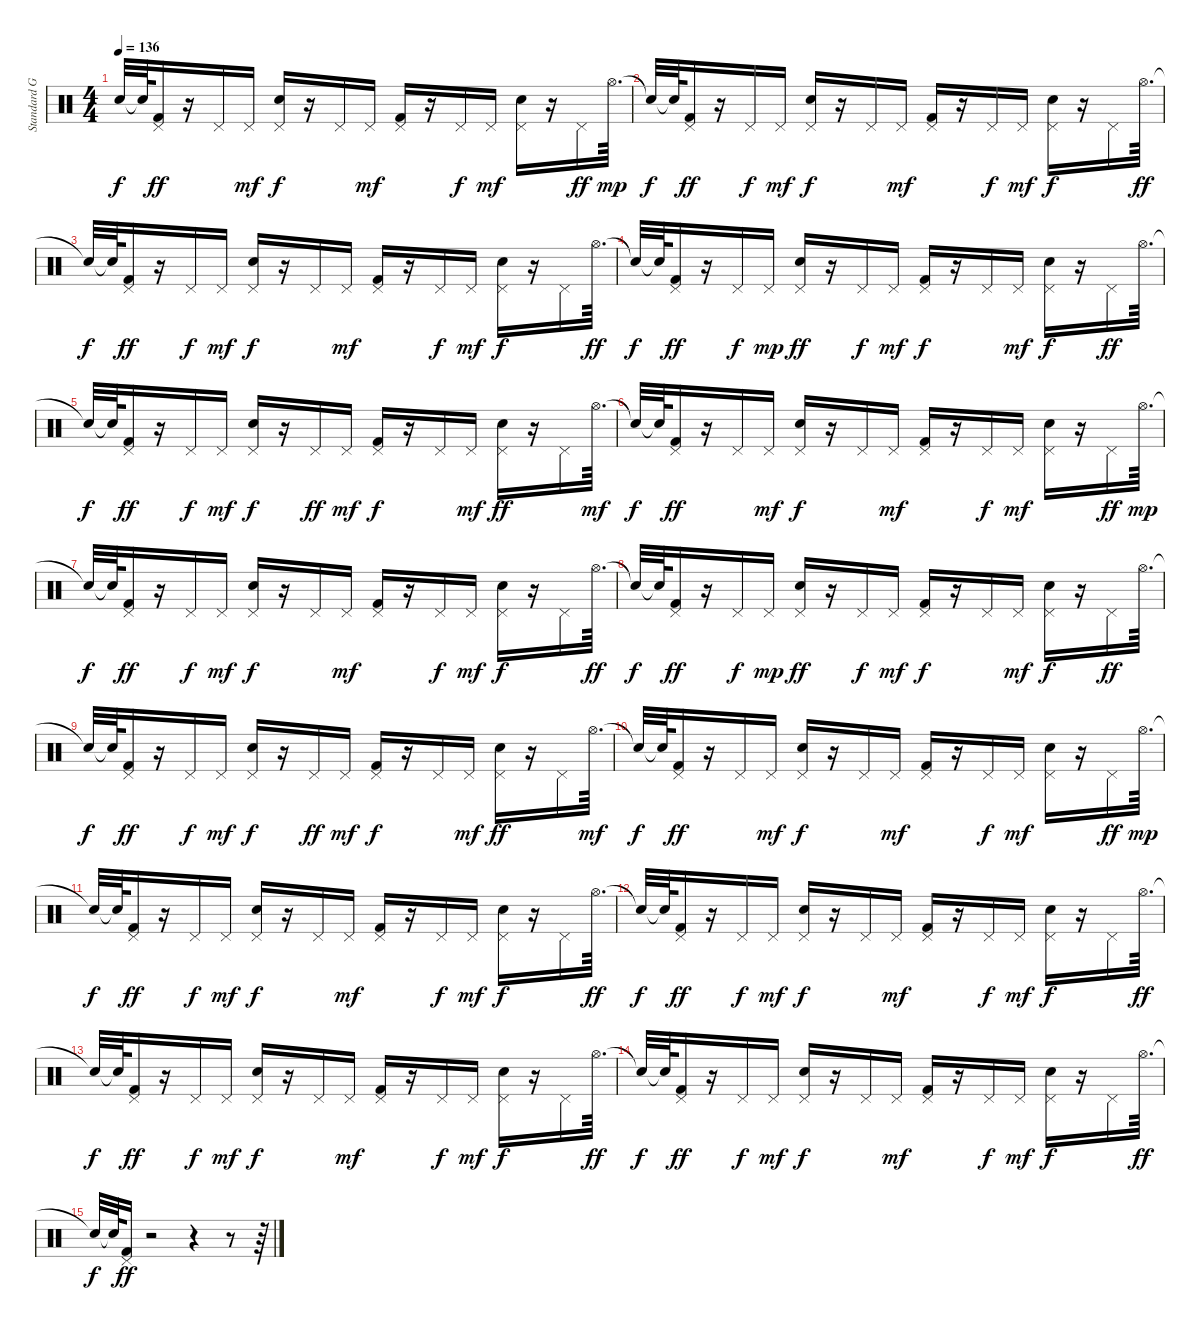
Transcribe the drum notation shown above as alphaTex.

\track ("Standard GM Drum Kit" "Standard G") {instrument percussion}
\staff {score}
\articulation defaults
\ts (4 4)
\tempo 136
\clef neutral
\ks c "Snare (hit)"{t}.32{dy f} "Snare (hit)"{t}.64
("Pedal Hi-Hat (hit)" "Kick (hit) 2").16{dy ff} r.16 "Pedal Hi-Hat (hit)".16 "Pedal Hi-Hat (hit)".16{dy mf} ("Pedal Hi-Hat (hit)" "Electric Snare (hit)").16{dy f} r.16 "Pedal Hi-Hat (hit)".16 "Pedal Hi-Hat (hit)".16{dy mf} ("Kick (hit) 2" "Pedal Hi-Hat (hit)").16 r.16 "Pedal Hi-Hat (hit)".16{dy f} "Pedal Hi-Hat (hit)".16{dy mf} ("Electric Snare (hit)" "Pedal Hi-Hat (hit)").16 r.16 "Pedal Hi-Hat (hit)".16{dy ff} "Hi-Hat (open)".64{d dy mp} |
"Snare (hit)"{t}.32{dy f} "Snare (hit)"{t}.64 ("Pedal Hi-Hat (hit)" "Kick (hit) 2").16{dy ff} r.16 "Pedal Hi-Hat (hit)".16{dy f} "Pedal Hi-Hat (hit)".16{dy mf} ("Pedal Hi-Hat (hit)" "Electric Snare (hit)").16{dy f} r.16 "Pedal Hi-Hat (hit)".16 "Pedal Hi-Hat (hit)".16{dy mf} ("Pedal Hi-Hat (hit)" "Kick (hit) 2").16 r.16 "Pedal Hi-Hat (hit)".16{dy f} "Pedal Hi-Hat (hit)".16{dy mf} ("Pedal Hi-Hat (hit)" "Electric Snare (hit)").16{dy f} r.16 "Pedal Hi-Hat (hit)".16 "Hi-Hat (open)".64{d dy ff} |
"Snare (hit)"{t}.32{dy f} "Snare (hit)"{t}.64 ("Pedal Hi-Hat (hit)" "Kick (hit) 2").16{dy ff} r.16 "Pedal Hi-Hat (hit)".16{dy f} "Pedal Hi-Hat (hit)".16{dy mf} ("Pedal Hi-Hat (hit)" "Electric Snare (hit)").16{dy f} r.16 "Pedal Hi-Hat (hit)".16 "Pedal Hi-Hat (hit)".16{dy mf} ("Pedal Hi-Hat (hit)" "Kick (hit) 2").16 r.16 "Pedal Hi-Hat (hit)".16{dy f} "Pedal Hi-Hat (hit)".16{dy mf} ("Pedal Hi-Hat (hit)" "Electric Snare (hit)").16{dy f} r.16 "Pedal Hi-Hat (hit)".16 "Hi-Hat (open)".64{d dy ff} |
"Snare (hit)"{t}.32{dy f} "Snare (hit)"{t}.64 ("Pedal Hi-Hat (hit)" "Kick (hit) 2").16{dy ff} r.16 "Pedal Hi-Hat (hit)".16{dy f} "Pedal Hi-Hat (hit)".16{dy mp} ("Pedal Hi-Hat (hit)" "Electric Snare (hit)").16{dy ff} r.16 "Pedal Hi-Hat (hit)".16{dy f} "Pedal Hi-Hat (hit)".16{dy mf} ("Kick (hit) 2" "Pedal Hi-Hat (hit)").16{dy f} r.16 "Pedal Hi-Hat (hit)".16 "Pedal Hi-Hat (hit)".16{dy mf} ("Electric Snare (hit)" "Pedal Hi-Hat (hit)").16{dy f} r.16 "Pedal Hi-Hat (hit)".16{dy ff} "Hi-Hat (open)".64{d} |
"Snare (hit)"{t}.32{dy f} "Snare (hit)"{t}.64 ("Pedal Hi-Hat (hit)" "Kick (hit) 2").16{dy ff} r.16 "Pedal Hi-Hat (hit)".16{dy f} "Pedal Hi-Hat (hit)".16{dy mf} ("Pedal Hi-Hat (hit)" "Electric Snare (hit)").16{dy f} r.16 "Pedal Hi-Hat (hit)".16{dy ff} "Pedal Hi-Hat (hit)".16{dy mf} ("Kick (hit) 2" "Pedal Hi-Hat (hit)").16{dy f} r.16 "Pedal Hi-Hat (hit)".16 "Pedal Hi-Hat (hit)".16{dy mf} ("Electric Snare (hit)" "Pedal Hi-Hat (hit)").16{dy ff} r.16 "Pedal Hi-Hat (hit)".16 "Hi-Hat (open)".64{d dy mf} |
"Snare (hit)"{t}.32{dy f} "Snare (hit)"{t}.64 ("Pedal Hi-Hat (hit)" "Kick (hit) 2").16{dy ff} r.16 "Pedal Hi-Hat (hit)".16 "Pedal Hi-Hat (hit)".16{dy mf} ("Pedal Hi-Hat (hit)" "Electric Snare (hit)").16{dy f} r.16 "Pedal Hi-Hat (hit)".16 "Pedal Hi-Hat (hit)".16{dy mf} ("Kick (hit) 2" "Pedal Hi-Hat (hit)").16 r.16 "Pedal Hi-Hat (hit)".16{dy f} "Pedal Hi-Hat (hit)".16{dy mf} ("Electric Snare (hit)" "Pedal Hi-Hat (hit)").16 r.16 "Pedal Hi-Hat (hit)".16{dy ff} "Hi-Hat (open)".64{d dy mp} |
"Snare (hit)"{t}.32{dy f} "Snare (hit)"{t}.64 ("Kick (hit) 2" "Pedal Hi-Hat (hit)").16{dy ff} r.16 "Pedal Hi-Hat (hit)".16{dy f} "Pedal Hi-Hat (hit)".16{dy mf} ("Pedal Hi-Hat (hit)" "Electric Snare (hit)").16{dy f} r.16 "Pedal Hi-Hat (hit)".16 "Pedal Hi-Hat (hit)".16{dy mf} ("Pedal Hi-Hat (hit)" "Kick (hit) 2").16 r.16 "Pedal Hi-Hat (hit)".16{dy f} "Pedal Hi-Hat (hit)".16{dy mf} ("Pedal Hi-Hat (hit)" "Electric Snare (hit)").16{dy f} r.16 "Pedal Hi-Hat (hit)".16 "Hi-Hat (open)".64{d dy ff} |
"Snare (hit)"{t}.32{dy f} "Snare (hit)"{t}.64 ("Pedal Hi-Hat (hit)" "Kick (hit) 2").16{dy ff} r.16 "Pedal Hi-Hat (hit)".16{dy f} "Pedal Hi-Hat (hit)".16{dy mp} ("Pedal Hi-Hat (hit)" "Electric Snare (hit)").16{dy ff} r.16 "Pedal Hi-Hat (hit)".16{dy f} "Pedal Hi-Hat (hit)".16{dy mf} ("Kick (hit) 2" "Pedal Hi-Hat (hit)").16{dy f} r.16 "Pedal Hi-Hat (hit)".16 "Pedal Hi-Hat (hit)".16{dy mf} ("Electric Snare (hit)" "Pedal Hi-Hat (hit)").16{dy f} r.16 "Pedal Hi-Hat (hit)".16{dy ff} "Hi-Hat (open)".64{d} |
"Snare (hit)"{t}.32{dy f} "Snare (hit)"{t}.64 ("Pedal Hi-Hat (hit)" "Kick (hit) 2").16{dy ff} r.16 "Pedal Hi-Hat (hit)".16{dy f} "Pedal Hi-Hat (hit)".16{dy mf} ("Pedal Hi-Hat (hit)" "Electric Snare (hit)").16{dy f} r.16 "Pedal Hi-Hat (hit)".16{dy ff} "Pedal Hi-Hat (hit)".16{dy mf} ("Kick (hit) 2" "Pedal Hi-Hat (hit)").16{dy f} r.16 "Pedal Hi-Hat (hit)".16 "Pedal Hi-Hat (hit)".16{dy mf} ("Electric Snare (hit)" "Pedal Hi-Hat (hit)").16{dy ff} r.16 "Pedal Hi-Hat (hit)".16 "Hi-Hat (open)".64{d dy mf} |
"Snare (hit)"{t}.32{dy f} "Snare (hit)"{t}.64 ("Pedal Hi-Hat (hit)" "Kick (hit) 2").16{dy ff} r.16 "Pedal Hi-Hat (hit)".16 "Pedal Hi-Hat (hit)".16{dy mf} ("Pedal Hi-Hat (hit)" "Electric Snare (hit)").16{dy f} r.16 "Pedal Hi-Hat (hit)".16 "Pedal Hi-Hat (hit)".16{dy mf} ("Kick (hit) 2" "Pedal Hi-Hat (hit)").16 r.16 "Pedal Hi-Hat (hit)".16{dy f} "Pedal Hi-Hat (hit)".16{dy mf} ("Electric Snare (hit)" "Pedal Hi-Hat (hit)").16 r.16 "Pedal Hi-Hat (hit)".16{dy ff} "Hi-Hat (open)".64{d dy mp} |
"Snare (hit)"{t}.32{dy f} "Snare (hit)"{t}.64 ("Pedal Hi-Hat (hit)" "Kick (hit) 2").16{dy ff} r.16 "Pedal Hi-Hat (hit)".16{dy f} "Pedal Hi-Hat (hit)".16{dy mf} ("Pedal Hi-Hat (hit)" "Electric Snare (hit)").16{dy f} r.16 "Pedal Hi-Hat (hit)".16 "Pedal Hi-Hat (hit)".16{dy mf} ("Pedal Hi-Hat (hit)" "Kick (hit) 2").16 r.16 "Pedal Hi-Hat (hit)".16{dy f} "Pedal Hi-Hat (hit)".16{dy mf} ("Pedal Hi-Hat (hit)" "Electric Snare (hit)").16{dy f} r.16 "Pedal Hi-Hat (hit)".16 "Hi-Hat (open)".64{d dy ff} |
"Snare (hit)"{t}.32{dy f} "Snare (hit)"{t}.64 ("Pedal Hi-Hat (hit)" "Kick (hit) 2").16{dy ff} r.16 "Pedal Hi-Hat (hit)".16{dy f} "Pedal Hi-Hat (hit)".16{dy mf} ("Pedal Hi-Hat (hit)" "Electric Snare (hit)").16{dy f} r.16 "Pedal Hi-Hat (hit)".16 "Pedal Hi-Hat (hit)".16{dy mf} ("Pedal Hi-Hat (hit)" "Kick (hit) 2").16 r.16 "Pedal Hi-Hat (hit)".16{dy f} "Pedal Hi-Hat (hit)".16{dy mf} ("Pedal Hi-Hat (hit)" "Electric Snare (hit)").16{dy f} r.16 "Pedal Hi-Hat (hit)".16 "Hi-Hat (open)".64{d dy ff} |
"Snare (hit)"{t}.32{dy f} "Snare (hit)"{t}.64 ("Pedal Hi-Hat (hit)" "Kick (hit) 2").16{dy ff} r.16 "Pedal Hi-Hat (hit)".16{dy f} "Pedal Hi-Hat (hit)".16{dy mf} ("Pedal Hi-Hat (hit)" "Electric Snare (hit)").16{dy f} r.16 "Pedal Hi-Hat (hit)".16 "Pedal Hi-Hat (hit)".16{dy mf} ("Pedal Hi-Hat (hit)" "Kick (hit) 2").16 r.16 "Pedal Hi-Hat (hit)".16{dy f} "Pedal Hi-Hat (hit)".16{dy mf} ("Pedal Hi-Hat (hit)" "Electric Snare (hit)").16{dy f} r.16 "Pedal Hi-Hat (hit)".16 "Hi-Hat (open)".64{d dy ff} |
"Snare (hit)"{t}.32{dy f} "Snare (hit)"{t}.64 ("Pedal Hi-Hat (hit)" "Kick (hit) 2").16{dy ff} r.16 "Pedal Hi-Hat (hit)".16{dy f} "Pedal Hi-Hat (hit)".16{dy mf} ("Pedal Hi-Hat (hit)" "Electric Snare (hit)").16{dy f} r.16 "Pedal Hi-Hat (hit)".16 "Pedal Hi-Hat (hit)".16{dy mf} ("Pedal Hi-Hat (hit)" "Kick (hit) 2").16 r.16 "Pedal Hi-Hat (hit)".16{dy f} "Pedal Hi-Hat (hit)".16{dy mf} ("Pedal Hi-Hat (hit)" "Electric Snare (hit)").16{dy f} r.16 "Pedal Hi-Hat (hit)".16 "Hi-Hat (open)".64{d dy ff} |
"Snare (hit)"{t}.32{dy f} "Snare (hit)"{t}.64 ("Pedal Hi-Hat (hit)" "Kick (hit) 2").16{dy ff} r.2 r.4 r.8 r.64
